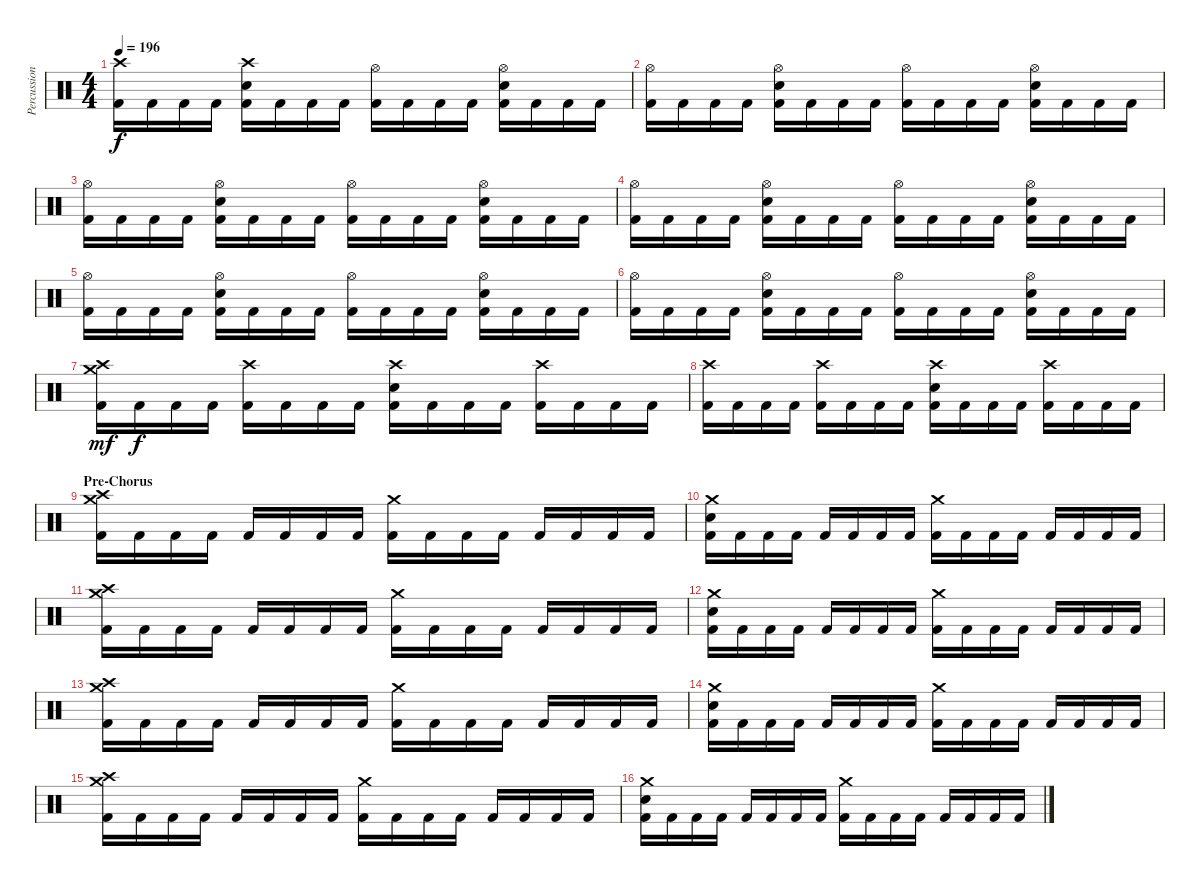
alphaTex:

\track ("Percussions" "Percussion") {instrument percussion}
\staff {score}
\articulation defaults
\ts (4 4)
\tempo 196
\clef neutral
\ks c
("Crash high (hit)" "Kick (hit) 2").16{dy f} "Kick (hit) 2".16 "Kick (hit) 2".16 "Kick (hit) 2".16 ("Crash high (hit)" "Electric Snare (hit)" "Kick (hit) 2").16 "Kick (hit) 2".16 "Kick (hit) 2".16 "Kick (hit) 2".16 ("Hi-Hat (open)" "Kick (hit) 2").16 "Kick (hit) 2".16 "Kick (hit) 2".16 "Kick (hit) 2".16 ("Hi-Hat (open)" "Electric Snare (hit)" "Kick (hit) 2").16 "Kick (hit) 2".16 "Kick (hit) 2".16 "Kick (hit) 2".16 |
("Hi-Hat (open)" "Kick (hit) 2").16 "Kick (hit) 2".16 "Kick (hit) 2".16 "Kick (hit) 2".16 ("Hi-Hat (open)" "Electric Snare (hit)" "Kick (hit) 2").16 "Kick (hit) 2".16 "Kick (hit) 2".16 "Kick (hit) 2".16 ("Hi-Hat (open)" "Kick (hit) 2").16 "Kick (hit) 2".16 "Kick (hit) 2".16 "Kick (hit) 2".16 ("Hi-Hat (open)" "Electric Snare (hit)" "Kick (hit) 2").16 "Kick (hit) 2".16 "Kick (hit) 2".16 "Kick (hit) 2".16 |
("Hi-Hat (open)" "Kick (hit) 2").16 "Kick (hit) 2".16 "Kick (hit) 2".16 "Kick (hit) 2".16 ("Hi-Hat (open)" "Electric Snare (hit)" "Kick (hit) 2").16 "Kick (hit) 2".16 "Kick (hit) 2".16 "Kick (hit) 2".16 ("Hi-Hat (open)" "Kick (hit) 2").16 "Kick (hit) 2".16 "Kick (hit) 2".16 "Kick (hit) 2".16 ("Hi-Hat (open)" "Electric Snare (hit)" "Kick (hit) 2").16 "Kick (hit) 2".16 "Kick (hit) 2".16 "Kick (hit) 2".16 |
("Hi-Hat (open)" "Kick (hit) 2").16 "Kick (hit) 2".16 "Kick (hit) 2".16 "Kick (hit) 2".16 ("Hi-Hat (open)" "Electric Snare (hit)" "Kick (hit) 2").16 "Kick (hit) 2".16 "Kick (hit) 2".16 "Kick (hit) 2".16 ("Hi-Hat (open)" "Kick (hit) 2").16 "Kick (hit) 2".16 "Kick (hit) 2".16 "Kick (hit) 2".16 ("Hi-Hat (open)" "Electric Snare (hit)" "Kick (hit) 2").16 "Kick (hit) 2".16 "Kick (hit) 2".16 "Kick (hit) 2".16 |
("Hi-Hat (open)" "Kick (hit) 2").16 "Kick (hit) 2".16 "Kick (hit) 2".16 "Kick (hit) 2".16 ("Hi-Hat (open)" "Electric Snare (hit)" "Kick (hit) 2").16 "Kick (hit) 2".16 "Kick (hit) 2".16 "Kick (hit) 2".16 ("Hi-Hat (open)" "Kick (hit) 2").16 "Kick (hit) 2".16 "Kick (hit) 2".16 "Kick (hit) 2".16 ("Hi-Hat (open)" "Electric Snare (hit)" "Kick (hit) 2").16 "Kick (hit) 2".16 "Kick (hit) 2".16 "Kick (hit) 2".16 |
("Hi-Hat (open)" "Kick (hit) 2").16 "Kick (hit) 2".16 "Kick (hit) 2".16 "Kick (hit) 2".16 ("Hi-Hat (open)" "Electric Snare (hit)" "Kick (hit) 2").16 "Kick (hit) 2".16 "Kick (hit) 2".16 "Kick (hit) 2".16 ("Hi-Hat (open)" "Kick (hit) 2").16 "Kick (hit) 2".16 "Kick (hit) 2".16 "Kick (hit) 2".16 ("Hi-Hat (open)" "Electric Snare (hit)" "Kick (hit) 2").16 "Kick (hit) 2".16 "Kick (hit) 2".16 "Kick (hit) 2".16 |
("Crash medium (hit)" "Crash high (hit)" "Kick (hit) 2").16{dy mf} "Kick (hit) 2".16{dy f} "Kick (hit) 2".16 "Kick (hit) 2".16 ("Crash high (hit)" "Kick (hit) 2").16 "Kick (hit) 2".16 "Kick (hit) 2".16 "Kick (hit) 2".16 ("Crash high (hit)" "Electric Snare (hit)" "Kick (hit) 2").16 "Kick (hit) 2".16 "Kick (hit) 2".16 "Kick (hit) 2".16 ("Crash high (hit)" "Kick (hit) 2").16 "Kick (hit) 2".16 "Kick (hit) 2".16 "Kick (hit) 2".16 |
("Crash high (hit)" "Kick (hit) 2").16 "Kick (hit) 2".16 "Kick (hit) 2".16 "Kick (hit) 2".16 ("Crash high (hit)" "Kick (hit) 2").16 "Kick (hit) 2".16 "Kick (hit) 2".16 "Kick (hit) 2".16 ("Crash high (hit)" "Electric Snare (hit)" "Kick (hit) 2").16 "Kick (hit) 2".16 "Kick (hit) 2".16 "Kick (hit) 2".16 ("Crash high (hit)" "Kick (hit) 2").16 "Kick (hit) 2".16 "Kick (hit) 2".16 "Kick (hit) 2".16 |
\section ("" "Pre-Chorus")
("Crash high (hit)" "Crash medium (hit)" "Kick (hit) 2").16 "Kick (hit) 2".16 "Kick (hit) 2".16 "Kick (hit) 2".16 "Kick (hit) 2".16 "Kick (hit) 2".16 "Kick (hit) 2".16 "Kick (hit) 2".16 ("Crash medium (hit)" "Kick (hit) 2").16 "Kick (hit) 2".16 "Kick (hit) 2".16 "Kick (hit) 2".16 "Kick (hit) 2".16 "Kick (hit) 2".16 "Kick (hit) 2".16 "Kick (hit) 2".16 |
("Crash medium (hit)" "Electric Snare (hit)" "Kick (hit) 2").16 "Kick (hit) 2".16 "Kick (hit) 2".16 "Kick (hit) 2".16 "Kick (hit) 2".16 "Kick (hit) 2".16 "Kick (hit) 2".16 "Kick (hit) 2".16 ("Crash medium (hit)" "Kick (hit) 2").16 "Kick (hit) 2".16 "Kick (hit) 2".16 "Kick (hit) 2".16 "Kick (hit) 2".16 "Kick (hit) 2".16 "Kick (hit) 2".16 "Kick (hit) 2".16 |
("Crash high (hit)" "Crash medium (hit)" "Kick (hit) 2").16 "Kick (hit) 2".16 "Kick (hit) 2".16 "Kick (hit) 2".16 "Kick (hit) 2".16 "Kick (hit) 2".16 "Kick (hit) 2".16 "Kick (hit) 2".16 ("Crash medium (hit)" "Kick (hit) 2").16 "Kick (hit) 2".16 "Kick (hit) 2".16 "Kick (hit) 2".16 "Kick (hit) 2".16 "Kick (hit) 2".16 "Kick (hit) 2".16 "Kick (hit) 2".16 |
("Crash medium (hit)" "Electric Snare (hit)" "Kick (hit) 2").16 "Kick (hit) 2".16 "Kick (hit) 2".16 "Kick (hit) 2".16 "Kick (hit) 2".16 "Kick (hit) 2".16 "Kick (hit) 2".16 "Kick (hit) 2".16 ("Crash medium (hit)" "Kick (hit) 2").16 "Kick (hit) 2".16 "Kick (hit) 2".16 "Kick (hit) 2".16 "Kick (hit) 2".16 "Kick (hit) 2".16 "Kick (hit) 2".16 "Kick (hit) 2".16 |
("Crash high (hit)" "Crash medium (hit)" "Kick (hit) 2").16 "Kick (hit) 2".16 "Kick (hit) 2".16 "Kick (hit) 2".16 "Kick (hit) 2".16 "Kick (hit) 2".16 "Kick (hit) 2".16 "Kick (hit) 2".16 ("Crash medium (hit)" "Kick (hit) 2").16 "Kick (hit) 2".16 "Kick (hit) 2".16 "Kick (hit) 2".16 "Kick (hit) 2".16 "Kick (hit) 2".16 "Kick (hit) 2".16 "Kick (hit) 2".16 |
("Crash medium (hit)" "Electric Snare (hit)" "Kick (hit) 2").16 "Kick (hit) 2".16 "Kick (hit) 2".16 "Kick (hit) 2".16 "Kick (hit) 2".16 "Kick (hit) 2".16 "Kick (hit) 2".16 "Kick (hit) 2".16 ("Crash medium (hit)" "Kick (hit) 2").16 "Kick (hit) 2".16 "Kick (hit) 2".16 "Kick (hit) 2".16 "Kick (hit) 2".16 "Kick (hit) 2".16 "Kick (hit) 2".16 "Kick (hit) 2".16 |
("Crash high (hit)" "Crash medium (hit)" "Kick (hit) 2").16 "Kick (hit) 2".16 "Kick (hit) 2".16 "Kick (hit) 2".16 "Kick (hit) 2".16 "Kick (hit) 2".16 "Kick (hit) 2".16 "Kick (hit) 2".16 ("Crash medium (hit)" "Kick (hit) 2").16 "Kick (hit) 2".16 "Kick (hit) 2".16 "Kick (hit) 2".16 "Kick (hit) 2".16 "Kick (hit) 2".16 "Kick (hit) 2".16 "Kick (hit) 2".16 |
("Crash medium (hit)" "Electric Snare (hit)" "Kick (hit) 2").16 "Kick (hit) 2".16 "Kick (hit) 2".16 "Kick (hit) 2".16 "Kick (hit) 2".16 "Kick (hit) 2".16 "Kick (hit) 2".16 "Kick (hit) 2".16 ("Crash medium (hit)" "Kick (hit) 2").16 "Kick (hit) 2".16 "Kick (hit) 2".16 "Kick (hit) 2".16 "Kick (hit) 2".16 "Kick (hit) 2".16 "Kick (hit) 2".16 "Kick (hit) 2".16
